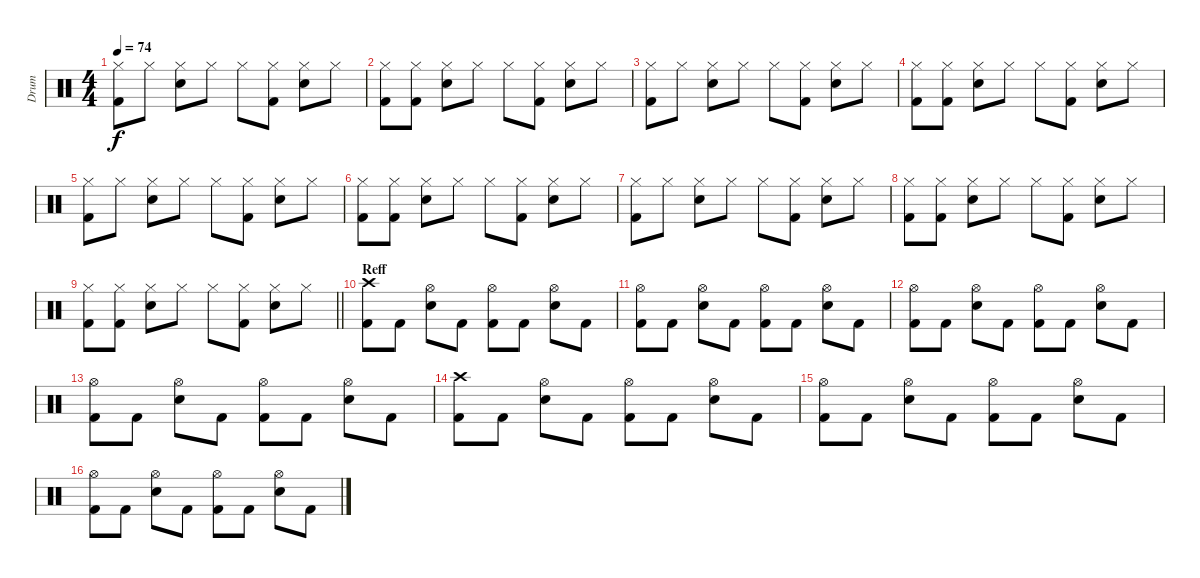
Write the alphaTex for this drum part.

\track ("Drum" "Drum") {instrument percussion}
\staff {score}
\articulation defaults
\ts (4 4)
\tempo 74
\clef neutral
\ks c
("Kick (hit) 2" "Hi-Hat (closed)").8{dy f} "Hi-Hat (closed)".8 ("Snare (hit) 2" "Hi-Hat (closed)").8 "Hi-Hat (closed)".8 "Hi-Hat (closed)".8 ("Kick (hit) 2" "Hi-Hat (closed)").8 ("Snare (hit) 2" "Hi-Hat (closed)").8 "Hi-Hat (closed)".8 |
("Kick (hit) 2" "Hi-Hat (closed)").8 ("Kick (hit) 2" "Hi-Hat (closed)").8 ("Snare (hit) 2" "Hi-Hat (closed)").8 "Hi-Hat (closed)".8 "Hi-Hat (closed)".8 ("Kick (hit) 2" "Hi-Hat (closed)").8 ("Snare (hit) 2" "Hi-Hat (closed)").8 "Hi-Hat (closed)".8 |
("Kick (hit) 2" "Hi-Hat (closed)").8 "Hi-Hat (closed)".8 ("Snare (hit) 2" "Hi-Hat (closed)").8 "Hi-Hat (closed)".8 "Hi-Hat (closed)".8 ("Kick (hit) 2" "Hi-Hat (closed)").8 ("Snare (hit) 2" "Hi-Hat (closed)").8 "Hi-Hat (closed)".8 |
("Kick (hit) 2" "Hi-Hat (closed)").8 ("Kick (hit) 2" "Hi-Hat (closed)").8 ("Snare (hit) 2" "Hi-Hat (closed)").8 "Hi-Hat (closed)".8 "Hi-Hat (closed)".8 ("Kick (hit) 2" "Hi-Hat (closed)").8 ("Snare (hit) 2" "Hi-Hat (closed)").8 "Hi-Hat (closed)".8 |
("Kick (hit) 2" "Hi-Hat (closed)").8 "Hi-Hat (closed)".8 ("Snare (hit) 2" "Hi-Hat (closed)").8 "Hi-Hat (closed)".8 "Hi-Hat (closed)".8 ("Kick (hit) 2" "Hi-Hat (closed)").8 ("Snare (hit) 2" "Hi-Hat (closed)").8 "Hi-Hat (closed)".8 |
("Kick (hit) 2" "Hi-Hat (closed)").8 ("Kick (hit) 2" "Hi-Hat (closed)").8 ("Snare (hit) 2" "Hi-Hat (closed)").8 "Hi-Hat (closed)".8 "Hi-Hat (closed)".8 ("Kick (hit) 2" "Hi-Hat (closed)").8 ("Snare (hit) 2" "Hi-Hat (closed)").8 "Hi-Hat (closed)".8 |
("Kick (hit) 2" "Hi-Hat (closed)").8 "Hi-Hat (closed)".8 ("Snare (hit) 2" "Hi-Hat (closed)").8 "Hi-Hat (closed)".8 "Hi-Hat (closed)".8 ("Kick (hit) 2" "Hi-Hat (closed)").8 ("Snare (hit) 2" "Hi-Hat (closed)").8 "Hi-Hat (closed)".8 |
("Kick (hit) 2" "Hi-Hat (closed)").8 ("Kick (hit) 2" "Hi-Hat (closed)").8 ("Snare (hit) 2" "Hi-Hat (closed)").8 "Hi-Hat (closed)".8 "Hi-Hat (closed)".8 ("Kick (hit) 2" "Hi-Hat (closed)").8 ("Snare (hit) 2" "Hi-Hat (closed)").8 "Hi-Hat (closed)".8 |
\barLineRight lightlight
("Kick (hit) 2" "Hi-Hat (closed)").8 ("Kick (hit) 2" "Hi-Hat (closed)").8 ("Snare (hit) 2" "Hi-Hat (closed)").8 "Hi-Hat (closed)".8 "Hi-Hat (closed)".8 ("Kick (hit) 2" "Hi-Hat (closed)").8 ("Snare (hit) 2" "Hi-Hat (closed)").8 "Hi-Hat (closed)".8 |
\section ("" "Reff")
("Kick (hit) 2" "Crash high (hit)").8 "Kick (hit) 2".8 ("Snare (hit) 2" "Hi-Hat (open)").8 "Kick (hit) 2".8 ("Kick (hit) 2" "Hi-Hat (open)").8 "Kick (hit) 2".8 ("Snare (hit) 2" "Hi-Hat (open)").8 "Kick (hit) 2".8 |
("Hi-Hat (open)" "Kick (hit) 2").8 "Kick (hit) 2".8 ("Snare (hit) 2" "Hi-Hat (open)").8 "Kick (hit) 2".8 ("Kick (hit) 2" "Hi-Hat (open)").8 "Kick (hit) 2".8 ("Snare (hit) 2" "Hi-Hat (open)").8 "Kick (hit) 2".8 |
("Hi-Hat (open)" "Kick (hit) 2").8 "Kick (hit) 2".8 ("Snare (hit) 2" "Hi-Hat (open)").8 "Kick (hit) 2".8 ("Kick (hit) 2" "Hi-Hat (open)").8 "Kick (hit) 2".8 ("Snare (hit) 2" "Hi-Hat (open)").8 "Kick (hit) 2".8 |
("Hi-Hat (open)" "Kick (hit) 2").8 "Kick (hit) 2".8 ("Snare (hit) 2" "Hi-Hat (open)").8 "Kick (hit) 2".8 ("Kick (hit) 2" "Hi-Hat (open)").8 "Kick (hit) 2".8 ("Snare (hit) 2" "Hi-Hat (open)").8 "Kick (hit) 2".8 |
("Kick (hit) 2" "Crash high (hit)").8 "Kick (hit) 2".8 ("Snare (hit) 2" "Hi-Hat (open)").8 "Kick (hit) 2".8 ("Kick (hit) 2" "Hi-Hat (open)").8 "Kick (hit) 2".8 ("Snare (hit) 2" "Hi-Hat (open)").8 "Kick (hit) 2".8 |
("Hi-Hat (open)" "Kick (hit) 2").8 "Kick (hit) 2".8 ("Snare (hit) 2" "Hi-Hat (open)").8 "Kick (hit) 2".8 ("Kick (hit) 2" "Hi-Hat (open)").8 "Kick (hit) 2".8 ("Snare (hit) 2" "Hi-Hat (open)").8 "Kick (hit) 2".8 |
("Hi-Hat (open)" "Kick (hit) 2").8 "Kick (hit) 2".8 ("Snare (hit) 2" "Hi-Hat (open)").8 "Kick (hit) 2".8 ("Kick (hit) 2" "Hi-Hat (open)").8 "Kick (hit) 2".8 ("Snare (hit) 2" "Hi-Hat (open)").8 "Kick (hit) 2".8
